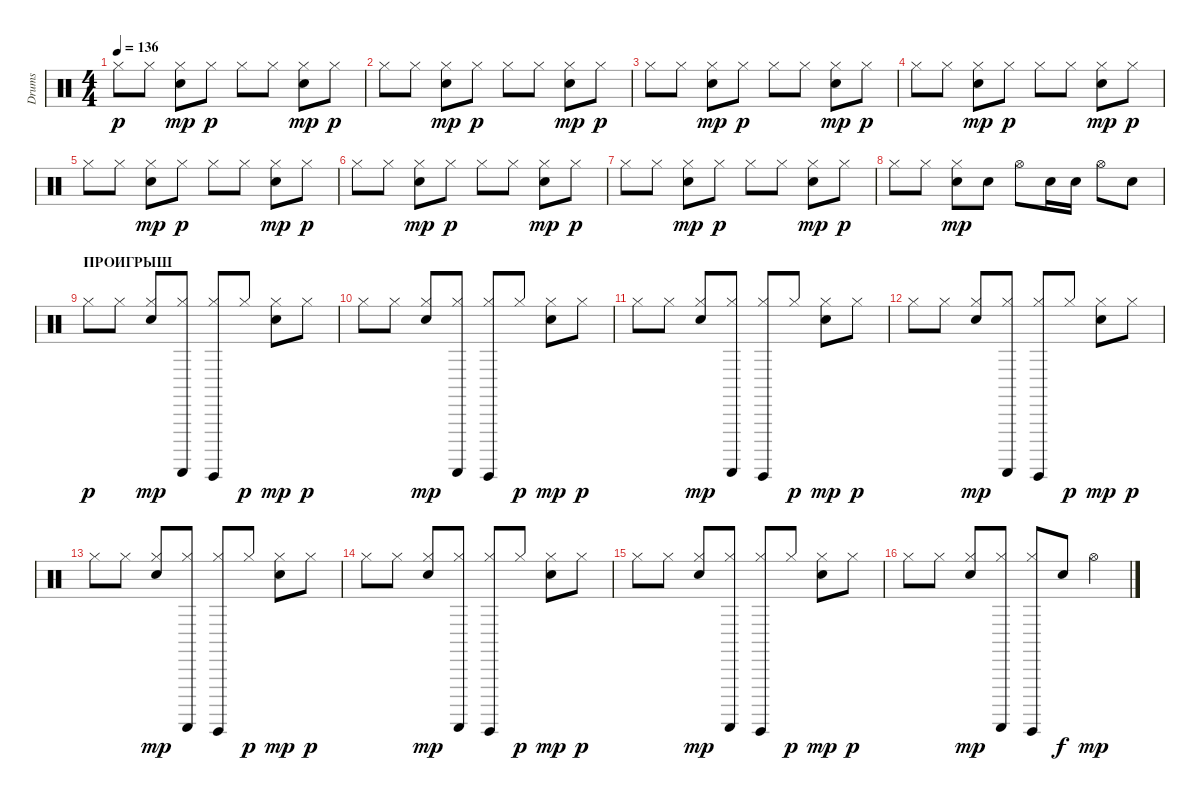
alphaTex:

\track ("Drums" "Drums") {instrument percussion}
\staff {score}
\articulation defaults
\ts (4 4)
\tempo 136
\clef neutral
\ks c "Hi-Hat (closed)".8{dy p} "Hi-Hat (closed)".8
("Hi-Hat (closed)" "Electric Snare (hit)").8{dy mp} "Hi-Hat (closed)".8{dy p} "Hi-Hat (closed)".8 "Hi-Hat (closed)".8 ("Hi-Hat (closed)" "Electric Snare (hit)").8{dy mp} "Hi-Hat (closed)".8{dy p} |
"Hi-Hat (closed)".8 "Hi-Hat (closed)".8 ("Hi-Hat (closed)" "Electric Snare (hit)").8{dy mp} "Hi-Hat (closed)".8{dy p} "Hi-Hat (closed)".8 "Hi-Hat (closed)".8 ("Hi-Hat (closed)" "Electric Snare (hit)").8{dy mp} "Hi-Hat (closed)".8{dy p} |
"Hi-Hat (closed)".8 "Hi-Hat (closed)".8 ("Hi-Hat (closed)" "Electric Snare (hit)").8{dy mp} "Hi-Hat (closed)".8{dy p} "Hi-Hat (closed)".8 "Hi-Hat (closed)".8 ("Hi-Hat (closed)" "Electric Snare (hit)").8{dy mp} "Hi-Hat (closed)".8{dy p} |
"Hi-Hat (closed)".8 "Hi-Hat (closed)".8 ("Hi-Hat (closed)" "Electric Snare (hit)").8{dy mp} "Hi-Hat (closed)".8{dy p} "Hi-Hat (closed)".8 "Hi-Hat (closed)".8 ("Hi-Hat (closed)" "Electric Snare (hit)").8{dy mp} "Hi-Hat (closed)".8{dy p} |
"Hi-Hat (closed)".8 "Hi-Hat (closed)".8 ("Hi-Hat (closed)" "Electric Snare (hit)").8{dy mp} "Hi-Hat (closed)".8{dy p} "Hi-Hat (closed)".8 "Hi-Hat (closed)".8 ("Hi-Hat (closed)" "Electric Snare (hit)").8{dy mp} "Hi-Hat (closed)".8{dy p} |
"Hi-Hat (closed)".8 "Hi-Hat (closed)".8 ("Hi-Hat (closed)" "Electric Snare (hit)").8{dy mp} "Hi-Hat (closed)".8{dy p} "Hi-Hat (closed)".8 "Hi-Hat (closed)".8 ("Hi-Hat (closed)" "Electric Snare (hit)").8{dy mp} "Hi-Hat (closed)".8{dy p} |
"Hi-Hat (closed)".8 "Hi-Hat (closed)".8 ("Hi-Hat (closed)" "Electric Snare (hit)").8{dy mp} "Hi-Hat (closed)".8{dy p} "Hi-Hat (closed)".8 "Hi-Hat (closed)".8 ("Hi-Hat (closed)" "Electric Snare (hit)").8{dy mp} "Hi-Hat (closed)".8{dy p} |
"Hi-Hat (closed)".8 "Hi-Hat (closed)".8 ("Hi-Hat (closed)" "Electric Snare (hit)").8{dy mp} "Electric Snare (hit)".8 "Hi-Hat (open)".8 "Electric Snare (hit)".16 "Electric Snare (hit)".16 "Hi-Hat (open)".8 "Electric Snare (hit)".8 |
\section ("" "ПРОИГРЫШ")
"Hi-Hat (closed)".8{dy p} "Hi-Hat (closed)".8 ("Hi-Hat (closed)" "Electric Snare (hit)").8{dy mp} ("Hi-Hat (closed)" "Guiro (scrap-return)").8 ("Hi-Hat (closed)" "Guiro (hit)").8 "Hi-Hat (closed)".8{dy p} ("Hi-Hat (closed)" "Electric Snare (hit)").8{dy mp} "Hi-Hat (closed)".8{dy p} |
"Hi-Hat (closed)".8 "Hi-Hat (closed)".8 ("Hi-Hat (closed)" "Electric Snare (hit)").8{dy mp} ("Hi-Hat (closed)" "Guiro (scrap-return)").8 ("Hi-Hat (closed)" "Guiro (hit)").8 "Hi-Hat (closed)".8{dy p} ("Hi-Hat (closed)" "Electric Snare (hit)").8{dy mp} "Hi-Hat (closed)".8{dy p} |
"Hi-Hat (closed)".8 "Hi-Hat (closed)".8 ("Hi-Hat (closed)" "Electric Snare (hit)").8{dy mp} ("Hi-Hat (closed)" "Guiro (scrap-return)").8 ("Hi-Hat (closed)" "Guiro (hit)").8 "Hi-Hat (closed)".8{dy p} ("Hi-Hat (closed)" "Electric Snare (hit)").8{dy mp} "Hi-Hat (closed)".8{dy p} |
"Hi-Hat (closed)".8 "Hi-Hat (closed)".8 ("Hi-Hat (closed)" "Electric Snare (hit)").8{dy mp} ("Hi-Hat (closed)" "Guiro (scrap-return)").8 ("Hi-Hat (closed)" "Guiro (hit)").8 "Hi-Hat (closed)".8{dy p} ("Hi-Hat (closed)" "Electric Snare (hit)").8{dy mp} "Hi-Hat (closed)".8{dy p} |
"Hi-Hat (closed)".8 "Hi-Hat (closed)".8 ("Hi-Hat (closed)" "Electric Snare (hit)").8{dy mp} ("Hi-Hat (closed)" "Guiro (scrap-return)").8 ("Hi-Hat (closed)" "Guiro (hit)").8 "Hi-Hat (closed)".8{dy p} ("Hi-Hat (closed)" "Electric Snare (hit)").8{dy mp} "Hi-Hat (closed)".8{dy p} |
"Hi-Hat (closed)".8 "Hi-Hat (closed)".8 ("Hi-Hat (closed)" "Electric Snare (hit)").8{dy mp} ("Hi-Hat (closed)" "Guiro (scrap-return)").8 ("Hi-Hat (closed)" "Guiro (hit)").8 "Hi-Hat (closed)".8{dy p} ("Hi-Hat (closed)" "Electric Snare (hit)").8{dy mp} "Hi-Hat (closed)".8{dy p} |
"Hi-Hat (closed)".8 "Hi-Hat (closed)".8 ("Hi-Hat (closed)" "Electric Snare (hit)").8{dy mp} ("Hi-Hat (closed)" "Guiro (scrap-return)").8 ("Hi-Hat (closed)" "Guiro (hit)").8 "Hi-Hat (closed)".8{dy p} ("Hi-Hat (closed)" "Electric Snare (hit)").8{dy mp} "Hi-Hat (closed)".8{dy p} |
"Hi-Hat (closed)".8 "Hi-Hat (closed)".8 ("Hi-Hat (closed)" "Electric Snare (hit)").8{dy mp} ("Hi-Hat (closed)" "Guiro (scrap-return)").8 ("Hi-Hat (closed)" "Guiro (hit)").8 "Electric Snare (hit)".8{dy f} "Hi-Hat (open)".4{dy mp}
